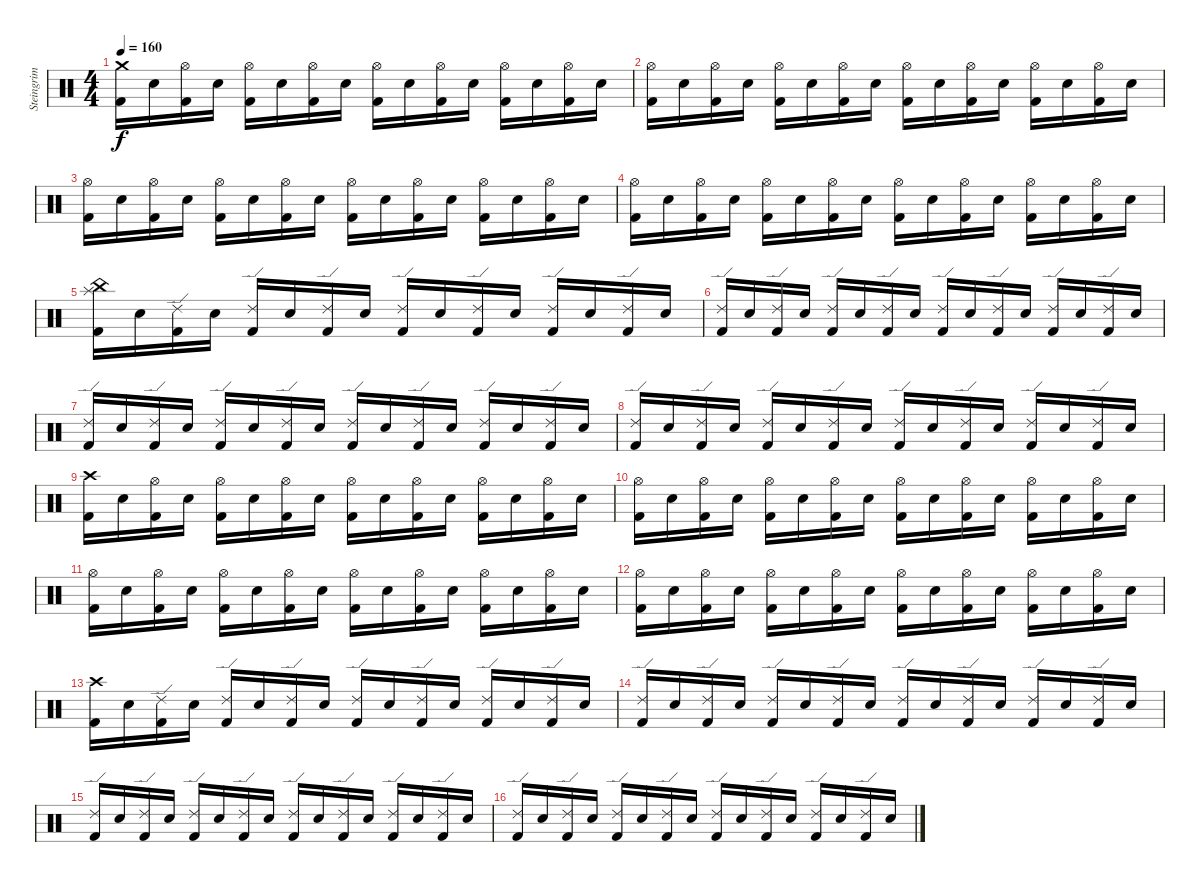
\track ("Steingrim Trommur" "Steingrim ") {instrument percussion}
\staff {score}
\articulation defaults
\ts (4 4)
\tempo 160
\clef neutral
\ks c
("Crash medium (hit)" "Kick (hit) 2").16{dy f} "Electric Snare (hit)".16 ("Hi-Hat (open)" "Kick (hit) 2").16 "Electric Snare (hit)".16 ("Hi-Hat (open)" "Kick (hit) 2").16 "Electric Snare (hit)".16 ("Hi-Hat (open)" "Kick (hit) 2").16 "Electric Snare (hit)".16 ("Hi-Hat (open)" "Kick (hit) 2").16 "Electric Snare (hit)".16 ("Hi-Hat (open)" "Kick (hit) 2").16 "Electric Snare (hit)".16 ("Hi-Hat (open)" "Kick (hit) 2").16 "Electric Snare (hit)".16 ("Hi-Hat (open)" "Kick (hit) 2").16 "Electric Snare (hit)".16 |
("Hi-Hat (open)" "Kick (hit) 2").16 "Electric Snare (hit)".16 ("Hi-Hat (open)" "Kick (hit) 2").16 "Electric Snare (hit)".16 ("Hi-Hat (open)" "Kick (hit) 2").16 "Electric Snare (hit)".16 ("Hi-Hat (open)" "Kick (hit) 2").16 "Electric Snare (hit)".16 ("Hi-Hat (open)" "Kick (hit) 2").16 "Electric Snare (hit)".16 ("Hi-Hat (open)" "Kick (hit) 2").16 "Electric Snare (hit)".16 ("Hi-Hat (open)" "Kick (hit) 2").16 "Electric Snare (hit)".16 ("Hi-Hat (open)" "Kick (hit) 2").16 "Electric Snare (hit)".16 |
("Hi-Hat (open)" "Kick (hit) 2").16 "Electric Snare (hit)".16 ("Hi-Hat (open)" "Kick (hit) 2").16 "Electric Snare (hit)".16 ("Hi-Hat (open)" "Kick (hit) 2").16 "Electric Snare (hit)".16 ("Hi-Hat (open)" "Kick (hit) 2").16 "Electric Snare (hit)".16 ("Hi-Hat (open)" "Kick (hit) 2").16 "Electric Snare (hit)".16 ("Hi-Hat (open)" "Kick (hit) 2").16 "Electric Snare (hit)".16 ("Hi-Hat (open)" "Kick (hit) 2").16 "Electric Snare (hit)".16 ("Hi-Hat (open)" "Kick (hit) 2").16 "Electric Snare (hit)".16 |
("Hi-Hat (open)" "Kick (hit) 2").16 "Electric Snare (hit)".16 ("Hi-Hat (open)" "Kick (hit) 2").16 "Electric Snare (hit)".16 ("Hi-Hat (open)" "Kick (hit) 2").16 "Electric Snare (hit)".16 ("Hi-Hat (open)" "Kick (hit) 2").16 "Electric Snare (hit)".16 ("Hi-Hat (open)" "Kick (hit) 2").16 "Electric Snare (hit)".16 ("Hi-Hat (open)" "Kick (hit) 2").16 "Electric Snare (hit)".16 ("Hi-Hat (open)" "Kick (hit) 2").16 "Electric Snare (hit)".16 ("Hi-Hat (open)" "Kick (hit) 2").16 "Electric Snare (hit)".16 |
("Splash (hit)" "China (hit)" "Kick (hit) 2").16 "Electric Snare (hit)".16 ("Ride (edge) 2" "Kick (hit) 2").16 "Electric Snare (hit)".16 ("Ride (edge) 2" "Kick (hit) 2").16 "Electric Snare (hit)".16 ("Ride (edge) 2" "Kick (hit) 2").16 "Electric Snare (hit)".16 ("Ride (edge) 2" "Kick (hit) 2").16 "Electric Snare (hit)".16 ("Ride (edge) 2" "Kick (hit) 2").16 "Electric Snare (hit)".16 ("Ride (edge) 2" "Kick (hit) 2").16 "Electric Snare (hit)".16 ("Ride (edge) 2" "Kick (hit) 2").16 "Electric Snare (hit)".16 |
("Ride (edge) 2" "Kick (hit) 2").16 "Electric Snare (hit)".16 ("Ride (edge) 2" "Kick (hit) 2").16 "Electric Snare (hit)".16 ("Ride (edge) 2" "Kick (hit) 2").16 "Electric Snare (hit)".16 ("Ride (edge) 2" "Kick (hit) 2").16 "Electric Snare (hit)".16 ("Ride (edge) 2" "Kick (hit) 2").16 "Electric Snare (hit)".16 ("Ride (edge) 2" "Kick (hit) 2").16 "Electric Snare (hit)".16 ("Ride (edge) 2" "Kick (hit) 2").16 "Electric Snare (hit)".16 ("Ride (edge) 2" "Kick (hit) 2").16 "Electric Snare (hit)".16 |
("Ride (edge) 2" "Kick (hit) 2").16 "Electric Snare (hit)".16 ("Ride (edge) 2" "Kick (hit) 2").16 "Electric Snare (hit)".16 ("Ride (edge) 2" "Kick (hit) 2").16 "Electric Snare (hit)".16 ("Ride (edge) 2" "Kick (hit) 2").16 "Electric Snare (hit)".16 ("Ride (edge) 2" "Kick (hit) 2").16 "Electric Snare (hit)".16 ("Ride (edge) 2" "Kick (hit) 2").16 "Electric Snare (hit)".16 ("Ride (edge) 2" "Kick (hit) 2").16 "Electric Snare (hit)".16 ("Ride (edge) 2" "Kick (hit) 2").16 "Electric Snare (hit)".16 |
("Ride (edge) 2" "Kick (hit) 2").16 "Electric Snare (hit)".16 ("Ride (edge) 2" "Kick (hit) 2").16 "Electric Snare (hit)".16 ("Ride (edge) 2" "Kick (hit) 2").16 "Electric Snare (hit)".16 ("Ride (edge) 2" "Kick (hit) 2").16 "Electric Snare (hit)".16 ("Ride (edge) 2" "Kick (hit) 2").16 "Electric Snare (hit)".16 ("Ride (edge) 2" "Kick (hit) 2").16 "Electric Snare (hit)".16 ("Ride (edge) 2" "Kick (hit) 2").16 "Electric Snare (hit)".16 ("Ride (edge) 2" "Kick (hit) 2").16 "Electric Snare (hit)".16 |
("Crash high (hit)" "Kick (hit) 2").16 "Electric Snare (hit)".16 ("Hi-Hat (open)" "Kick (hit) 2").16 "Electric Snare (hit)".16 ("Hi-Hat (open)" "Kick (hit) 2").16 "Electric Snare (hit)".16 ("Hi-Hat (open)" "Kick (hit) 2").16 "Electric Snare (hit)".16 ("Hi-Hat (open)" "Kick (hit) 2").16 "Electric Snare (hit)".16 ("Hi-Hat (open)" "Kick (hit) 2").16 "Electric Snare (hit)".16 ("Hi-Hat (open)" "Kick (hit) 2").16 "Electric Snare (hit)".16 ("Hi-Hat (open)" "Kick (hit) 2").16 "Electric Snare (hit)".16 |
("Hi-Hat (open)" "Kick (hit) 2").16 "Electric Snare (hit)".16 ("Hi-Hat (open)" "Kick (hit) 2").16 "Electric Snare (hit)".16 ("Hi-Hat (open)" "Kick (hit) 2").16 "Electric Snare (hit)".16 ("Hi-Hat (open)" "Kick (hit) 2").16 "Electric Snare (hit)".16 ("Hi-Hat (open)" "Kick (hit) 2").16 "Electric Snare (hit)".16 ("Hi-Hat (open)" "Kick (hit) 2").16 "Electric Snare (hit)".16 ("Hi-Hat (open)" "Kick (hit) 2").16 "Electric Snare (hit)".16 ("Hi-Hat (open)" "Kick (hit) 2").16 "Electric Snare (hit)".16 |
("Hi-Hat (open)" "Kick (hit) 2").16 "Electric Snare (hit)".16 ("Hi-Hat (open)" "Kick (hit) 2").16 "Electric Snare (hit)".16 ("Hi-Hat (open)" "Kick (hit) 2").16 "Electric Snare (hit)".16 ("Hi-Hat (open)" "Kick (hit) 2").16 "Electric Snare (hit)".16 ("Hi-Hat (open)" "Kick (hit) 2").16 "Electric Snare (hit)".16 ("Hi-Hat (open)" "Kick (hit) 2").16 "Electric Snare (hit)".16 ("Hi-Hat (open)" "Kick (hit) 2").16 "Electric Snare (hit)".16 ("Hi-Hat (open)" "Kick (hit) 2").16 "Electric Snare (hit)".16 |
("Hi-Hat (open)" "Kick (hit) 2").16 "Electric Snare (hit)".16 ("Hi-Hat (open)" "Kick (hit) 2").16 "Electric Snare (hit)".16 ("Hi-Hat (open)" "Kick (hit) 2").16 "Electric Snare (hit)".16 ("Hi-Hat (open)" "Kick (hit) 2").16 "Electric Snare (hit)".16 ("Hi-Hat (open)" "Kick (hit) 2").16 "Electric Snare (hit)".16 ("Hi-Hat (open)" "Kick (hit) 2").16 "Electric Snare (hit)".16 ("Hi-Hat (open)" "Kick (hit) 2").16 "Electric Snare (hit)".16 ("Hi-Hat (open)" "Kick (hit) 2").16 "Electric Snare (hit)".16 |
("Crash high (hit)" "Kick (hit) 2").16 "Electric Snare (hit)".16 ("Ride (edge) 2" "Kick (hit) 2").16 "Electric Snare (hit)".16 ("Ride (edge) 2" "Kick (hit) 2").16 "Electric Snare (hit)".16 ("Ride (edge) 2" "Kick (hit) 2").16 "Electric Snare (hit)".16 ("Ride (edge) 2" "Kick (hit) 2").16 "Electric Snare (hit)".16 ("Ride (edge) 2" "Kick (hit) 2").16 "Electric Snare (hit)".16 ("Ride (edge) 2" "Kick (hit) 2").16 "Electric Snare (hit)".16 ("Ride (edge) 2" "Kick (hit) 2").16 "Electric Snare (hit)".16 |
("Ride (edge) 2" "Kick (hit) 2").16 "Electric Snare (hit)".16 ("Ride (edge) 2" "Kick (hit) 2").16 "Electric Snare (hit)".16 ("Ride (edge) 2" "Kick (hit) 2").16 "Electric Snare (hit)".16 ("Ride (edge) 2" "Kick (hit) 2").16 "Electric Snare (hit)".16 ("Ride (edge) 2" "Kick (hit) 2").16 "Electric Snare (hit)".16 ("Ride (edge) 2" "Kick (hit) 2").16 "Electric Snare (hit)".16 ("Ride (edge) 2" "Kick (hit) 2").16 "Electric Snare (hit)".16 ("Ride (edge) 2" "Kick (hit) 2").16 "Electric Snare (hit)".16 |
("Ride (edge) 2" "Kick (hit) 2").16 "Electric Snare (hit)".16 ("Ride (edge) 2" "Kick (hit) 2").16 "Electric Snare (hit)".16 ("Ride (edge) 2" "Kick (hit) 2").16 "Electric Snare (hit)".16 ("Ride (edge) 2" "Kick (hit) 2").16 "Electric Snare (hit)".16 ("Ride (edge) 2" "Kick (hit) 2").16 "Electric Snare (hit)".16 ("Ride (edge) 2" "Kick (hit) 2").16 "Electric Snare (hit)".16 ("Ride (edge) 2" "Kick (hit) 2").16 "Electric Snare (hit)".16 ("Ride (edge) 2" "Kick (hit) 2").16 "Electric Snare (hit)".16 |
("Ride (edge) 2" "Kick (hit) 2").16 "Electric Snare (hit)".16 ("Ride (edge) 2" "Kick (hit) 2").16 "Electric Snare (hit)".16 ("Ride (edge) 2" "Kick (hit) 2").16 "Electric Snare (hit)".16 ("Ride (edge) 2" "Kick (hit) 2").16 "Electric Snare (hit)".16 ("Ride (edge) 2" "Kick (hit) 2").16 "Electric Snare (hit)".16 ("Ride (edge) 2" "Kick (hit) 2").16 "Electric Snare (hit)".16 ("Ride (edge) 2" "Kick (hit) 2").16 "Electric Snare (hit)".16 ("Ride (edge) 2" "Kick (hit) 2").16 "Electric Snare (hit)".16
